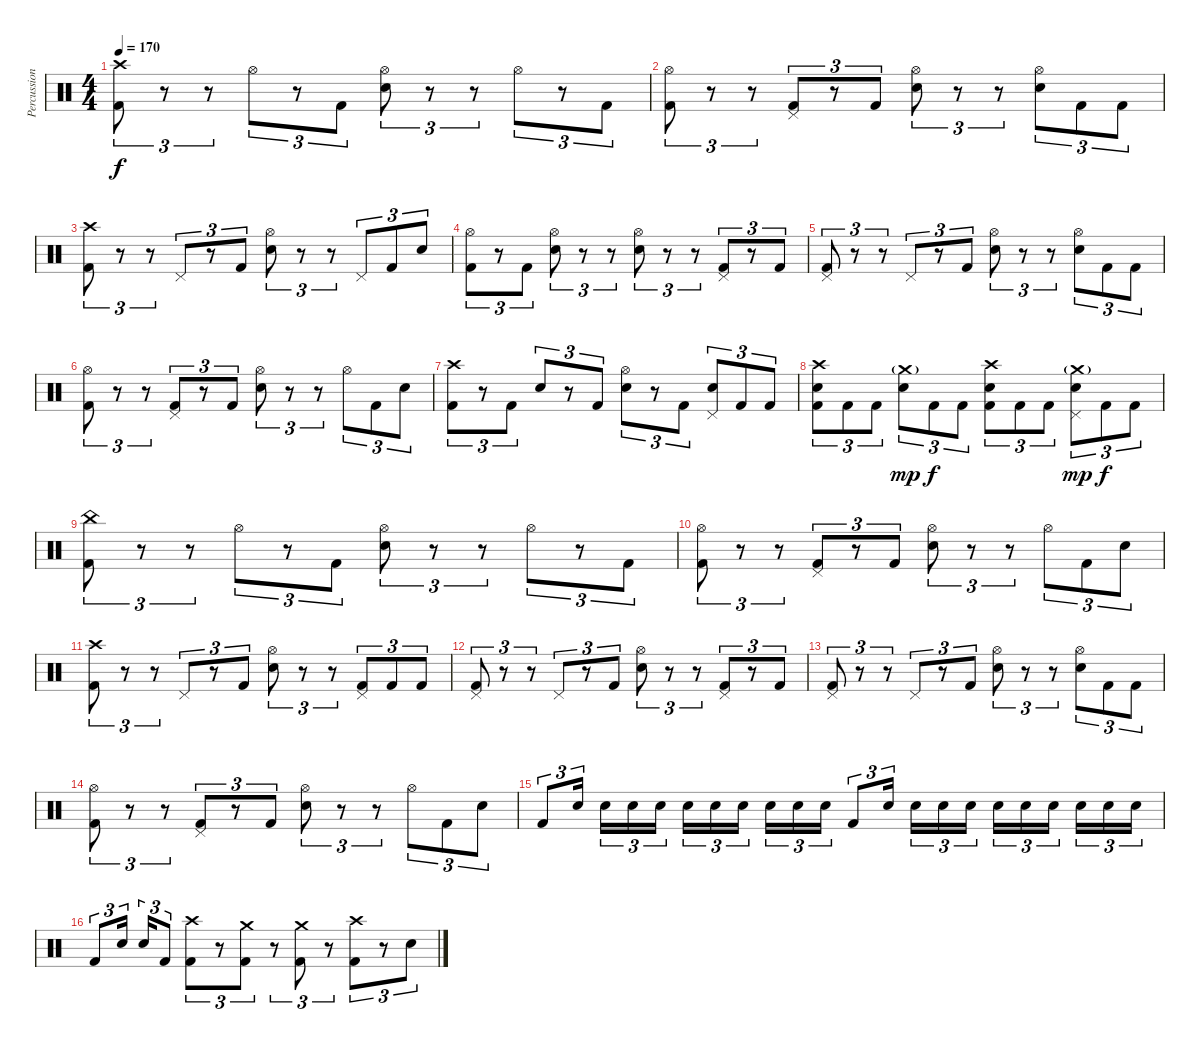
\track ("Percussion" "Percussion") {instrument percussion}
\staff {score}
\articulation defaults
\ts (4 4)
\tempo 170
\clef neutral
\ks c
("Crash high (hit)" "Kick (hit) 2").8{tu (3 2) dy f} r.8{tu (3 2)} r.8{tu (3 2)} "Hi-Hat (open)".8{tu (3 2)} r.8{tu (3 2)} "Kick (hit) 2".8{tu (3 2)} ("Hi-Hat (open)" "Electric Snare (hit)").8{tu (3 2)} r.8{tu (3 2)} r.8{tu (3 2)} "Hi-Hat (open)".8{tu (3 2)} r.8{tu (3 2)} "Kick (hit) 2".8{tu (3 2)} |
("Hi-Hat (open)" "Kick (hit) 2").8{tu (3 2)} r.8{tu (3 2)} r.8{tu (3 2)} ("Pedal Hi-Hat (hit)" "Kick (hit) 2").8{tu (3 2)} r.8{tu (3 2)} "Kick (hit) 2".8{tu (3 2)} ("Hi-Hat (open)" "Electric Snare (hit)").8{tu (3 2)} r.8{tu (3 2)} r.8{tu (3 2)} ("Hi-Hat (open)" "Electric Snare (hit)").8{tu (3 2)} "Kick (hit) 2".8{tu (3 2)} "Kick (hit) 2".8{tu (3 2)} |
("Crash high (hit)" "Kick (hit) 2").8{tu (3 2)} r.8{tu (3 2)} r.8{tu (3 2)} "Pedal Hi-Hat (hit)".8{tu (3 2)} r.8{tu (3 2)} "Kick (hit) 2".8{tu (3 2)} ("Hi-Hat (open)" "Electric Snare (hit)").8{tu (3 2)} r.8{tu (3 2)} r.8{tu (3 2)} "Pedal Hi-Hat (hit)".8{tu (3 2)} "Kick (hit) 2".8{tu (3 2)} "Electric Snare (hit)".8{tu (3 2)} |
("Hi-Hat (open)" "Kick (hit) 2").8{tu (3 2)} r.8{tu (3 2)} "Kick (hit) 2".8{tu (3 2)} ("Hi-Hat (open)" "Electric Snare (hit)").8{tu (3 2)} r.8{tu (3 2)} r.8{tu (3 2)} ("Hi-Hat (open)" "Electric Snare (hit)").8{tu (3 2)} r.8{tu (3 2)} r.8{tu (3 2)} ("Pedal Hi-Hat (hit)" "Kick (hit) 2").8{tu (3 2)} r.8{tu (3 2)} "Kick (hit) 2".8{tu (3 2)} |
("Pedal Hi-Hat (hit)" "Kick (hit) 2").8{tu (3 2)} r.8{tu (3 2)} r.8{tu (3 2)} "Pedal Hi-Hat (hit)".8{tu (3 2)} r.8{tu (3 2)} "Kick (hit) 2".8{tu (3 2)} ("Hi-Hat (open)" "Electric Snare (hit)").8{tu (3 2)} r.8{tu (3 2)} r.8{tu (3 2)} ("Hi-Hat (open)" "Electric Snare (hit)").8{tu (3 2)} "Kick (hit) 2".8{tu (3 2)} "Kick (hit) 2".8{tu (3 2)} |
("Hi-Hat (open)" "Kick (hit) 2").8{tu (3 2)} r.8{tu (3 2)} r.8{tu (3 2)} ("Pedal Hi-Hat (hit)" "Kick (hit) 2").8{tu (3 2)} r.8{tu (3 2)} "Kick (hit) 2".8{tu (3 2)} ("Hi-Hat (open)" "Electric Snare (hit)").8{tu (3 2)} r.8{tu (3 2)} r.8{tu (3 2)} "Hi-Hat (open)".8{tu (3 2)} "Kick (hit) 2".8{tu (3 2)} "Electric Snare (hit)".8{tu (3 2)} |
("Crash high (hit)" "Kick (hit) 2").8{tu (3 2)} r.8{tu (3 2)} "Kick (hit) 2".8{tu (3 2)} "Electric Snare (hit)".8{tu (3 2)} r.8{tu (3 2)} "Kick (hit) 2".8{tu (3 2)} ("Hi-Hat (open)" "Electric Snare (hit)").8{tu (3 2)} r.8{tu (3 2)} "Kick (hit) 2".8{tu (3 2)} ("Pedal Hi-Hat (hit)" "Electric Snare (hit)").8{tu (3 2)} "Kick (hit) 2".8{tu (3 2)} "Kick (hit) 2".8{tu (3 2)} |
("Crash high (hit)" "Electric Snare (hit)" "Kick (hit) 2").8{tu (3 2)} "Kick (hit) 2".8{tu (3 2)} "Kick (hit) 2".8{tu (3 2)} ("Crash medium (hit)"{g} "Electric Snare (hit)").8{tu (3 2) dy mp} "Kick (hit) 2".8{tu (3 2) dy f} "Kick (hit) 2".8{tu (3 2)} ("Crash high (hit)" "Electric Snare (hit)" "Kick (hit) 2").8{tu (3 2)} "Kick (hit) 2".8{tu (3 2)} "Kick (hit) 2".8{tu (3 2)} ("Crash medium (hit)"{g} "Pedal Hi-Hat (hit)" "Electric Snare (hit)").8{tu (3 2) dy mp} "Kick (hit) 2".8{tu (3 2) dy f} "Kick (hit) 2".8{tu (3 2)} |
("China (hit)" "Kick (hit) 2").8{tu (3 2)} r.8{tu (3 2)} r.8{tu (3 2)} "Hi-Hat (open)".8{tu (3 2)} r.8{tu (3 2)} "Kick (hit) 2".8{tu (3 2)} ("Hi-Hat (open)" "Electric Snare (hit)").8{tu (3 2)} r.8{tu (3 2)} r.8{tu (3 2)} "Hi-Hat (open)".8{tu (3 2)} r.8{tu (3 2)} "Kick (hit) 2".8{tu (3 2)} |
("Hi-Hat (open)" "Kick (hit) 2").8{tu (3 2)} r.8{tu (3 2)} r.8{tu (3 2)} ("Pedal Hi-Hat (hit)" "Kick (hit) 2").8{tu (3 2)} r.8{tu (3 2)} "Kick (hit) 2".8{tu (3 2)} ("Hi-Hat (open)" "Electric Snare (hit)").8{tu (3 2)} r.8{tu (3 2)} r.8{tu (3 2)} "Hi-Hat (open)".8{tu (3 2)} "Kick (hit) 2".8{tu (3 2)} "Electric Snare (hit)".8{tu (3 2)} |
("Crash high (hit)" "Kick (hit) 2").8{tu (3 2)} r.8{tu (3 2)} r.8{tu (3 2)} "Pedal Hi-Hat (hit)".8{tu (3 2)} r.8{tu (3 2)} "Kick (hit) 2".8{tu (3 2)} ("Hi-Hat (open)" "Electric Snare (hit)").8{tu (3 2)} r.8{tu (3 2)} r.8{tu (3 2)} ("Pedal Hi-Hat (hit)" "Kick (hit) 2").8{tu (3 2)} "Kick (hit) 2".8{tu (3 2)} "Kick (hit) 2".8{tu (3 2)} |
("Pedal Hi-Hat (hit)" "Kick (hit) 2").8{tu (3 2)} r.8{tu (3 2)} r.8{tu (3 2)} "Pedal Hi-Hat (hit)".8{tu (3 2)} r.8{tu (3 2)} "Kick (hit) 2".8{tu (3 2)} ("Hi-Hat (open)" "Electric Snare (hit)").8{tu (3 2)} r.8{tu (3 2)} r.8{tu (3 2)} ("Pedal Hi-Hat (hit)" "Kick (hit) 2").8{tu (3 2)} r.8{tu (3 2)} "Kick (hit) 2".8{tu (3 2)} |
("Pedal Hi-Hat (hit)" "Kick (hit) 2").8{tu (3 2)} r.8{tu (3 2)} r.8{tu (3 2)} "Pedal Hi-Hat (hit)".8{tu (3 2)} r.8{tu (3 2)} "Kick (hit) 2".8{tu (3 2)} ("Hi-Hat (open)" "Electric Snare (hit)").8{tu (3 2)} r.8{tu (3 2)} r.8{tu (3 2)} ("Hi-Hat (open)" "Electric Snare (hit)").8{tu (3 2)} "Kick (hit) 2".8{tu (3 2)} "Kick (hit) 2".8{tu (3 2)} |
("Hi-Hat (open)" "Kick (hit) 2").8{tu (3 2)} r.8{tu (3 2)} r.8{tu (3 2)} ("Pedal Hi-Hat (hit)" "Kick (hit) 2").8{tu (3 2)} r.8{tu (3 2)} "Kick (hit) 2".8{tu (3 2)} ("Hi-Hat (open)" "Electric Snare (hit)").8{tu (3 2)} r.8{tu (3 2)} r.8{tu (3 2)} "Hi-Hat (open)".8{tu (3 2)} "Kick (hit) 2".8{tu (3 2)} "Electric Snare (hit)".8{tu (3 2)} |
"Kick (hit) 2".8{tu (3 2)} "Electric Snare (hit)".16{tu (3 2)} "Electric Snare (hit)".16{tu (3 2)} "Electric Snare (hit)".16{tu (3 2)} "Electric Snare (hit)".16{tu (3 2)} "Electric Snare (hit)".16{tu (3 2)} "Electric Snare (hit)".16{tu (3 2)} "Electric Snare (hit)".16{tu (3 2)} "Electric Snare (hit)".16{tu (3 2)} "Electric Snare (hit)".16{tu (3 2)} "Electric Snare (hit)".16{tu (3 2)} "Kick (hit) 2".8{tu (3 2)} "Electric Snare (hit)".16{tu (3 2)} "Electric Snare (hit)".16{tu (3 2)} "Electric Snare (hit)".16{tu (3 2)} "Electric Snare (hit)".16{tu (3 2)} "Electric Snare (hit)".16{tu (3 2)} "Electric Snare (hit)".16{tu (3 2)} "Electric Snare (hit)".16{tu (3 2)} "Electric Snare (hit)".16{tu (3 2)} "Electric Snare (hit)".16{tu (3 2)} "Electric Snare (hit)".16{tu (3 2)} |
"Kick (hit) 2".8{tu (3 2)} "Electric Snare (hit)".16{tu (3 2)} "Electric Snare (hit)".16{tu (3 2)} "Kick (hit) 2".8{tu (3 2)} ("Crash high (hit)" "Kick (hit) 2").8{tu (3 2)} r.8{tu (3 2)} ("Crash medium (hit)" "Kick (hit) 2").8{tu (3 2)} r.8{tu (3 2)} ("Crash medium (hit)" "Kick (hit) 2").8{tu (3 2)} r.8{tu (3 2)} ("Crash high (hit)" "Kick (hit) 2").8{tu (3 2)} r.8{tu (3 2)} "Electric Snare (hit)".8{tu (3 2)}
